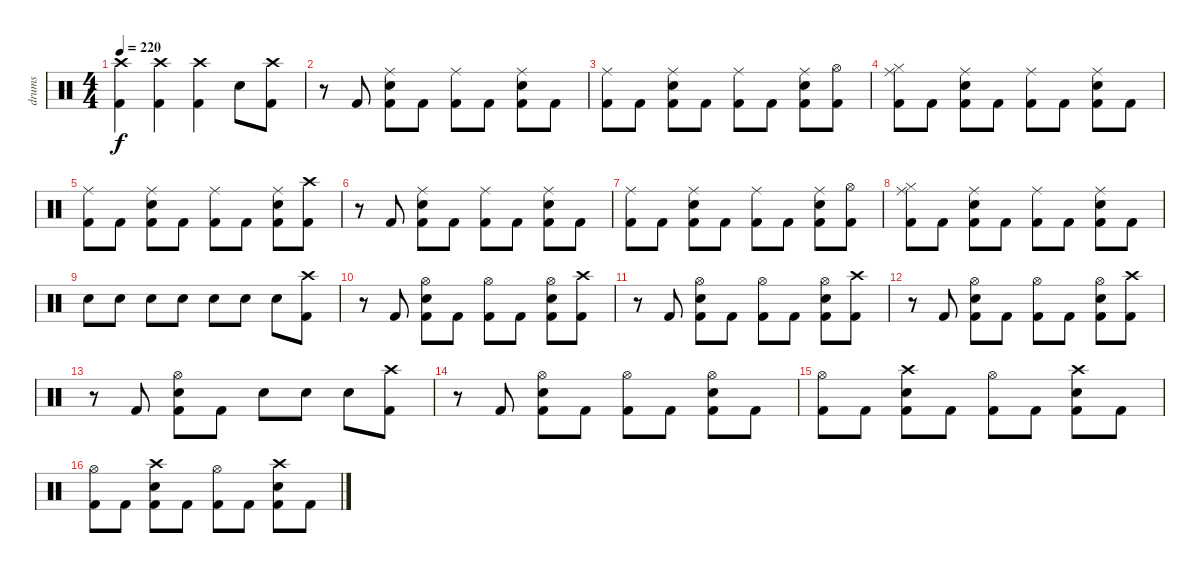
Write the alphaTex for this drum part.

\track ("drums" "drums") {instrument percussion}
\staff {score}
\articulation defaults
\ts (4 4)
\tempo 220
\clef neutral
\ks c
("Crash high (hit)" "Kick (hit) 2").4{dy f} ("Crash high (hit)" "Kick (hit) 2").4 ("Crash high (hit)" "Kick (hit) 2").4 "Electric Snare (hit)".8 ("Crash high (hit)" "Kick (hit) 2").8 |
r.8 "Kick (hit) 2".8 ("Ride (middle)" "Electric Snare (hit)" "Kick (hit) 2").8 "Kick (hit) 2".8 ("Ride (middle)" "Kick (hit) 2").8 "Kick (hit) 2".8 ("Ride (middle)" "Electric Snare (hit)" "Kick (hit) 2").8 "Kick (hit) 2".8 |
("Ride (middle)" "Kick (hit) 2").8 "Kick (hit) 2".8 ("Ride (middle)" "Electric Snare (hit)" "Kick (hit) 2").8 "Kick (hit) 2".8 ("Ride (middle)" "Kick (hit) 2").8 "Kick (hit) 2".8 ("Ride (middle)" "Electric Snare (hit)" "Kick (hit) 2").8 ("Hi-Hat (open)" "Kick (hit) 2").8 |
("Ride (middle)" "Hi-Hat (closed)" "Kick (hit) 2").8 "Kick (hit) 2".8 ("Ride (middle)" "Electric Snare (hit)" "Kick (hit) 2").8 "Kick (hit) 2".8 ("Ride (middle)" "Kick (hit) 2").8 "Kick (hit) 2".8 ("Ride (middle)" "Electric Snare (hit)" "Kick (hit) 2").8 "Kick (hit) 2".8 |
("Ride (middle)" "Kick (hit) 2").8 "Kick (hit) 2".8 ("Ride (middle)" "Electric Snare (hit)" "Kick (hit) 2").8 "Kick (hit) 2".8 ("Ride (middle)" "Kick (hit) 2").8 "Kick (hit) 2".8 ("Ride (middle)" "Electric Snare (hit)" "Kick (hit) 2").8 ("Crash high (hit)" "Kick (hit) 2").8 |
r.8 "Kick (hit) 2".8 ("Ride (middle)" "Electric Snare (hit)" "Kick (hit) 2").8 "Kick (hit) 2".8 ("Ride (middle)" "Kick (hit) 2").8 "Kick (hit) 2".8 ("Ride (middle)" "Electric Snare (hit)" "Kick (hit) 2").8 "Kick (hit) 2".8 |
("Ride (middle)" "Kick (hit) 2").8 "Kick (hit) 2".8 ("Ride (middle)" "Electric Snare (hit)" "Kick (hit) 2").8 "Kick (hit) 2".8 ("Ride (middle)" "Kick (hit) 2").8 "Kick (hit) 2".8 ("Ride (middle)" "Electric Snare (hit)" "Kick (hit) 2").8 ("Hi-Hat (open)" "Kick (hit) 2").8 |
("Ride (middle)" "Hi-Hat (closed)" "Kick (hit) 2").8 "Kick (hit) 2".8 ("Ride (middle)" "Electric Snare (hit)" "Kick (hit) 2").8 "Kick (hit) 2".8 ("Ride (middle)" "Kick (hit) 2").8 "Kick (hit) 2".8 ("Ride (middle)" "Electric Snare (hit)" "Kick (hit) 2").8 "Kick (hit) 2".8 |
"Electric Snare (hit)".8 "Electric Snare (hit)".8 "Electric Snare (hit)".8 "Electric Snare (hit)".8 "Electric Snare (hit)".8 "Electric Snare (hit)".8 "Electric Snare (hit)".8 ("Crash high (hit)" "Kick (hit) 2").8 |
r.8 "Kick (hit) 2".8 ("Hi-Hat (open)" "Electric Snare (hit)" "Kick (hit) 2").8 "Kick (hit) 2".8 ("Hi-Hat (open)" "Kick (hit) 2").8 "Kick (hit) 2".8 ("Hi-Hat (open)" "Electric Snare (hit)" "Kick (hit) 2").8 ("Crash high (hit)" "Kick (hit) 2").8 |
r.8 "Kick (hit) 2".8 ("Hi-Hat (open)" "Electric Snare (hit)" "Kick (hit) 2").8 "Kick (hit) 2".8 ("Hi-Hat (open)" "Kick (hit) 2").8 "Kick (hit) 2".8 ("Hi-Hat (open)" "Electric Snare (hit)" "Kick (hit) 2").8 ("Crash high (hit)" "Kick (hit) 2").8 |
r.8 "Kick (hit) 2".8 ("Hi-Hat (open)" "Electric Snare (hit)" "Kick (hit) 2").8 "Kick (hit) 2".8 ("Hi-Hat (open)" "Kick (hit) 2").8 "Kick (hit) 2".8 ("Hi-Hat (open)" "Electric Snare (hit)" "Kick (hit) 2").8 ("Crash high (hit)" "Kick (hit) 2").8 |
r.8 "Kick (hit) 2".8 ("Hi-Hat (open)" "Electric Snare (hit)" "Kick (hit) 2").8 "Kick (hit) 2".8 "Electric Snare (hit)".8 "Electric Snare (hit)".8 "Electric Snare (hit)".8 ("Crash high (hit)" "Kick (hit) 2").8 |
r.8 "Kick (hit) 2".8 ("Hi-Hat (open)" "Electric Snare (hit)" "Kick (hit) 2").8 "Kick (hit) 2".8 ("Hi-Hat (open)" "Kick (hit) 2").8 "Kick (hit) 2".8 ("Hi-Hat (open)" "Electric Snare (hit)" "Kick (hit) 2").8 "Kick (hit) 2".8 |
("Hi-Hat (open)" "Kick (hit) 2").8 "Kick (hit) 2".8 ("Crash high (hit)" "Electric Snare (hit)" "Kick (hit) 2").8 "Kick (hit) 2".8 ("Hi-Hat (open)" "Kick (hit) 2").8 "Kick (hit) 2".8 ("Crash high (hit)" "Electric Snare (hit)" "Kick (hit) 2").8 "Kick (hit) 2".8 |
("Hi-Hat (open)" "Kick (hit) 2").8 "Kick (hit) 2".8 ("Crash high (hit)" "Electric Snare (hit)" "Kick (hit) 2").8 "Kick (hit) 2".8 ("Hi-Hat (open)" "Kick (hit) 2").8 "Kick (hit) 2".8 ("Crash high (hit)" "Electric Snare (hit)" "Kick (hit) 2").8 "Kick (hit) 2".8
